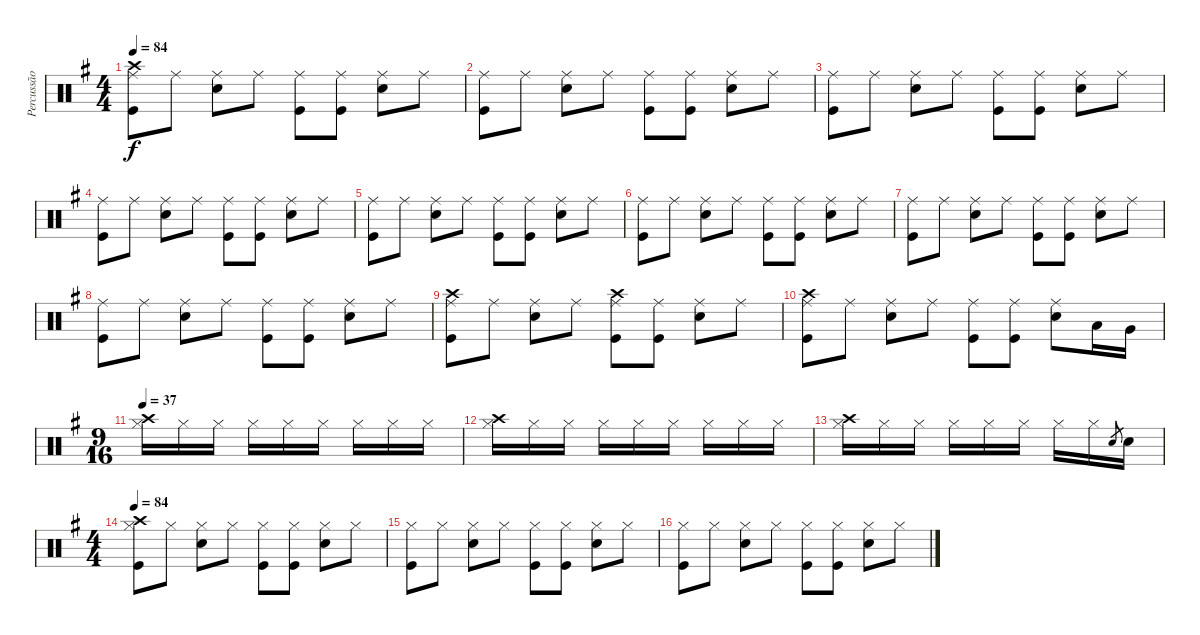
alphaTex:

\track ("Percussão" "Percussão") {instrument percussion}
\staff {score}
\articulation defaults
\ts (4 4)
\tempo 84
\clef neutral
\ks g
("Crash high (hit)" "Ride (middle)" "Kick (hit)").8{dy f} "Ride (middle)".8 ("Ride (middle)" "Snare (hit) 2").8 "Ride (middle)".8 ("Ride (middle)" "Kick (hit)").8 ("Ride (middle)" "Kick (hit)").8 ("Ride (middle)" "Snare (hit) 2").8 "Ride (middle)".8 |
("Ride (middle)" "Kick (hit)").8 "Ride (middle)".8 ("Ride (middle)" "Snare (hit) 2").8 "Ride (middle)".8 ("Ride (middle)" "Kick (hit)").8 ("Ride (middle)" "Kick (hit)").8 ("Ride (middle)" "Snare (hit) 2").8 "Ride (middle)".8 |
("Ride (middle)" "Kick (hit)").8 "Ride (middle)".8 ("Ride (middle)" "Snare (hit) 2").8 "Ride (middle)".8 ("Ride (middle)" "Kick (hit)").8 ("Ride (middle)" "Kick (hit)").8 ("Ride (middle)" "Snare (hit) 2").8 "Ride (middle)".8 |
("Ride (middle)" "Kick (hit)").8 "Ride (middle)".8 ("Ride (middle)" "Snare (hit) 2").8 "Ride (middle)".8 ("Ride (middle)" "Kick (hit)").8 ("Ride (middle)" "Kick (hit)").8 ("Ride (middle)" "Snare (hit) 2").8 "Ride (middle)".8 |
("Ride (middle)" "Kick (hit)").8 "Ride (middle)".8 ("Ride (middle)" "Snare (hit) 2").8 "Ride (middle)".8 ("Ride (middle)" "Kick (hit)").8 ("Ride (middle)" "Kick (hit)").8 ("Ride (middle)" "Snare (hit) 2").8 "Ride (middle)".8 |
("Ride (middle)" "Kick (hit)").8 "Ride (middle)".8 ("Ride (middle)" "Snare (hit) 2").8 "Ride (middle)".8 ("Ride (middle)" "Kick (hit)").8 ("Ride (middle)" "Kick (hit)").8 ("Ride (middle)" "Snare (hit) 2").8 "Ride (middle)".8 |
("Ride (middle)" "Kick (hit)").8 "Ride (middle)".8 ("Ride (middle)" "Snare (hit) 2").8 "Ride (middle)".8 ("Ride (middle)" "Kick (hit)").8 ("Ride (middle)" "Kick (hit)").8 ("Ride (middle)" "Snare (hit) 2").8 "Ride (middle)".8 |
("Ride (middle)" "Kick (hit)").8 "Ride (middle)".8 ("Ride (middle)" "Snare (hit) 2").8 "Ride (middle)".8 ("Ride (middle)" "Kick (hit)").8 ("Ride (middle)" "Kick (hit)").8 ("Ride (middle)" "Snare (hit) 2").8 "Ride (middle)".8 |
("Crash high (hit)" "Ride (middle)" "Kick (hit)").8 "Ride (middle)".8 ("Ride (middle)" "Snare (hit) 2").8 "Ride (middle)".8 ("Crash high (hit)" "Ride (middle)" "Kick (hit)").8 ("Ride (middle)" "Kick (hit)").8 ("Ride (middle)" "Snare (hit) 2").8 "Ride (middle)".8 |
("Crash high (hit)" "Ride (middle)" "Kick (hit)").8 "Ride (middle)".8 ("Ride (middle)" "Snare (hit) 2").8 "Ride (middle)".8 ("Ride (middle)" "Kick (hit)").8 ("Ride (middle)" "Kick (hit)").8 ("Ride (middle)" "Snare (hit) 2").8 "Low Tom (hit)".16 "Very Low Tom (hit)".16 |
\ts (9 16)
\tempo 37
("Crash high (hit)" "Hi-Hat (closed)").16 "Hi-Hat (closed)".16 "Hi-Hat (closed)".16 "Hi-Hat (closed)".16 "Hi-Hat (closed)".16 "Hi-Hat (closed)".16 "Hi-Hat (closed)".16 "Hi-Hat (closed)".16 "Hi-Hat (closed)".16 |
("Crash high (hit)" "Hi-Hat (closed)").16 "Hi-Hat (closed)".16 "Hi-Hat (closed)".16 "Hi-Hat (closed)".16 "Hi-Hat (closed)".16 "Hi-Hat (closed)".16 "Hi-Hat (closed)".16 "Hi-Hat (closed)".16 "Hi-Hat (closed)".16 |
("Crash high (hit)" "Hi-Hat (closed)").16 "Hi-Hat (closed)".16 "Hi-Hat (closed)".16 "Hi-Hat (closed)".16 "Hi-Hat (closed)".16 "Hi-Hat (closed)".16 "Hi-Hat (closed)".16 "Hi-Hat (closed)".16 "Snare (hit) 2".8{gr} "Snare (hit) 2".16 |
\ts (4 4)
\tempo 84
("Crash high (hit)" "Hi-Hat (closed)" "Kick (hit)").8 "Hi-Hat (closed)".8 ("Hi-Hat (closed)" "Snare (hit) 2").8 "Hi-Hat (closed)".8 ("Hi-Hat (closed)" "Kick (hit)").8 ("Hi-Hat (closed)" "Kick (hit)").8 ("Hi-Hat (closed)" "Snare (hit) 2").8 "Hi-Hat (closed)".8 |
("Hi-Hat (closed)" "Kick (hit)").8 "Hi-Hat (closed)".8 ("Hi-Hat (closed)" "Snare (hit) 2").8 "Hi-Hat (closed)".8 ("Hi-Hat (closed)" "Kick (hit)").8 ("Hi-Hat (closed)" "Kick (hit)").8 ("Hi-Hat (closed)" "Snare (hit) 2").8 "Hi-Hat (closed)".8 |
("Hi-Hat (closed)" "Kick (hit)").8 "Hi-Hat (closed)".8 ("Hi-Hat (closed)" "Snare (hit) 2").8 "Hi-Hat (closed)".8 ("Hi-Hat (closed)" "Kick (hit)").8 ("Hi-Hat (closed)" "Kick (hit)").8 ("Hi-Hat (closed)" "Snare (hit) 2").8 "Hi-Hat (closed)".8
